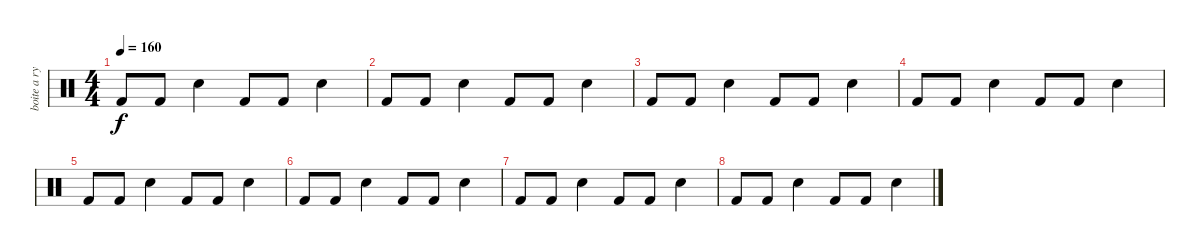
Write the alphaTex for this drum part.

\track ("boite a rythme" "boite a ry") {instrument percussion}
\staff {score}
\articulation defaults
\ts (4 4)
\tempo 160
\clef neutral
\ks c "Kick (hit) 2".8{dy f} "Kick (hit) 2".8 "Electric Snare (hit)".4 "Kick (hit) 2".8 "Kick (hit) 2".8 "Electric Snare (hit)".4
|
"Kick (hit) 2".8 "Kick (hit) 2".8 "Electric Snare (hit)".4 "Kick (hit) 2".8 "Kick (hit) 2".8 "Electric Snare (hit)".4 |
"Kick (hit) 2".8 "Kick (hit) 2".8 "Electric Snare (hit)".4 "Kick (hit) 2".8 "Kick (hit) 2".8 "Electric Snare (hit)".4 |
"Kick (hit) 2".8 "Kick (hit) 2".8 "Electric Snare (hit)".4 "Kick (hit) 2".8 "Kick (hit) 2".8 "Electric Snare (hit)".4 |
"Kick (hit) 2".8 "Kick (hit) 2".8 "Electric Snare (hit)".4 "Kick (hit) 2".8 "Kick (hit) 2".8 "Electric Snare (hit)".4 |
"Kick (hit) 2".8 "Kick (hit) 2".8 "Electric Snare (hit)".4 "Kick (hit) 2".8 "Kick (hit) 2".8 "Electric Snare (hit)".4 |
"Kick (hit) 2".8 "Kick (hit) 2".8 "Electric Snare (hit)".4 "Kick (hit) 2".8 "Kick (hit) 2".8 "Electric Snare (hit)".4 |
"Kick (hit) 2".8 "Kick (hit) 2".8 "Electric Snare (hit)".4 "Kick (hit) 2".8 "Kick (hit) 2".8 "Electric Snare (hit)".4
